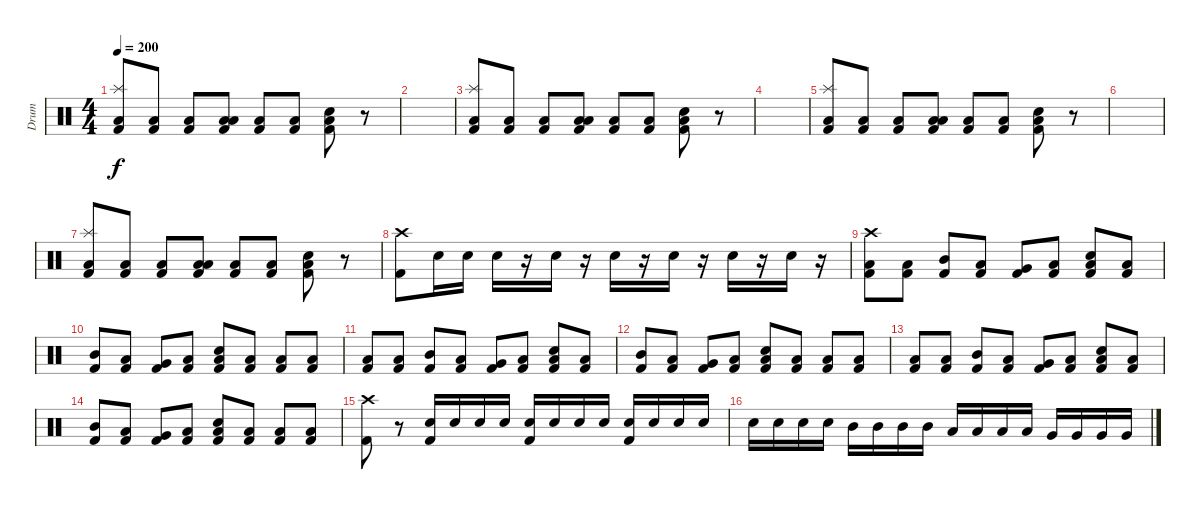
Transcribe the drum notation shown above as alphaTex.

\track ("Drum" "Drum") {instrument percussion}
\staff {score}
\articulation defaults
\ts (4 4)
\tempo 200
\clef neutral
\ks c
("Low Floor Tom (hit)" "Splash (hit)" "Kick (hit) 2").8{dy f} ("Low Floor Tom (hit)" "Kick (hit) 2").8 ("Low Floor Tom (hit)" "Kick (hit) 2").8 ("Low Tom (hit)" "Low Floor Tom (hit)" "Kick (hit) 2").8 ("Low Floor Tom (hit)" "Kick (hit) 2").8 ("Low Floor Tom (hit)" "Kick (hit) 2").8 ("Low Floor Tom (hit)" "Snare (hit) 2" "Kick (hit) 2").8 r.8 |
|
("Low Floor Tom (hit)" "Splash (hit)" "Kick (hit) 2").8 ("Low Floor Tom (hit)" "Kick (hit) 2").8 ("Low Floor Tom (hit)" "Kick (hit) 2").8 ("Low Tom (hit)" "Low Floor Tom (hit)" "Kick (hit) 2").8 ("Low Floor Tom (hit)" "Kick (hit) 2").8 ("Low Floor Tom (hit)" "Kick (hit) 2").8 ("Low Floor Tom (hit)" "Snare (hit) 2" "Kick (hit) 2").8 r.8 |
|
("Low Floor Tom (hit)" "Splash (hit)" "Kick (hit) 2").8 ("Low Floor Tom (hit)" "Kick (hit) 2").8 ("Low Floor Tom (hit)" "Kick (hit) 2").8 ("Low Tom (hit)" "Low Floor Tom (hit)" "Kick (hit) 2").8 ("Low Floor Tom (hit)" "Kick (hit) 2").8 ("Low Floor Tom (hit)" "Kick (hit) 2").8 ("Low Floor Tom (hit)" "Snare (hit) 2" "Kick (hit) 2").8 r.8 |
|
("Low Floor Tom (hit)" "Splash (hit)" "Kick (hit) 2").8 ("Low Floor Tom (hit)" "Kick (hit) 2").8 ("Low Floor Tom (hit)" "Kick (hit) 2").8 ("Low Tom (hit)" "Low Floor Tom (hit)" "Kick (hit) 2").8 ("Low Floor Tom (hit)" "Kick (hit) 2").8 ("Low Floor Tom (hit)" "Kick (hit) 2").8 ("Low Floor Tom (hit)" "Snare (hit) 2" "Kick (hit) 2").8 r.8 |
("Crash high (hit)" "Kick (hit) 2").8 "Snare (hit) 2".16 "Snare (hit) 2".16 "Snare (hit) 2".16 r.16 "Snare (hit) 2".16 r.16 "Snare (hit) 2".16 r.16 "Snare (hit) 2".16 r.16 "Snare (hit) 2".16 r.16 "Snare (hit) 2".16 r.16 |
("Low Floor Tom (hit)" "Crash high (hit)" "Kick (hit) 2").8 ("Low Floor Tom (hit)" "Kick (hit) 2").8 ("Mid Tom (hit)" "Kick (hit) 2").8 ("Low Tom (hit)" "Kick (hit) 2").8 ("Very Low Tom (hit)" "Kick (hit) 2").8 ("Low Floor Tom (hit)" "Kick (hit) 2").8 ("Low Floor Tom (hit)" "Snare (hit) 2" "Kick (hit) 2").8 ("Low Floor Tom (hit)" "Kick (hit) 2").8 |
("Mid Tom (hit)" "Kick (hit) 2").8 ("Low Tom (hit)" "Kick (hit) 2").8 ("Very Low Tom (hit)" "Kick (hit) 2").8 ("Low Floor Tom (hit)" "Kick (hit) 2").8 ("Low Floor Tom (hit)" "Snare (hit) 2" "Kick (hit) 2").8 ("Low Floor Tom (hit)" "Kick (hit) 2").8 ("Low Floor Tom (hit)" "Kick (hit) 2").8 ("Low Floor Tom (hit)" "Kick (hit) 2").8 |
("Low Floor Tom (hit)" "Kick (hit) 2").8 ("Low Floor Tom (hit)" "Kick (hit) 2").8 ("Mid Tom (hit)" "Kick (hit) 2").8 ("Low Tom (hit)" "Kick (hit) 2").8 ("Very Low Tom (hit)" "Kick (hit) 2").8 ("Low Floor Tom (hit)" "Kick (hit) 2").8 ("Low Floor Tom (hit)" "Snare (hit) 2" "Kick (hit) 2").8 ("Low Floor Tom (hit)" "Kick (hit) 2").8 |
("Mid Tom (hit)" "Kick (hit) 2").8 ("Low Tom (hit)" "Kick (hit) 2").8 ("Very Low Tom (hit)" "Kick (hit) 2").8 ("Low Floor Tom (hit)" "Kick (hit) 2").8 ("Low Floor Tom (hit)" "Snare (hit) 2" "Kick (hit) 2").8 ("Low Floor Tom (hit)" "Kick (hit) 2").8 ("Low Floor Tom (hit)" "Kick (hit) 2").8 ("Low Floor Tom (hit)" "Kick (hit) 2").8 |
("Low Floor Tom (hit)" "Kick (hit) 2").8 ("Low Floor Tom (hit)" "Kick (hit) 2").8 ("Mid Tom (hit)" "Kick (hit) 2").8 ("Low Tom (hit)" "Kick (hit) 2").8 ("Very Low Tom (hit)" "Kick (hit) 2").8 ("Low Floor Tom (hit)" "Kick (hit) 2").8 ("Low Floor Tom (hit)" "Snare (hit) 2" "Kick (hit) 2").8 ("Low Floor Tom (hit)" "Kick (hit) 2").8 |
("Mid Tom (hit)" "Kick (hit) 2").8 ("Low Tom (hit)" "Kick (hit) 2").8 ("Very Low Tom (hit)" "Kick (hit) 2").8 ("Low Floor Tom (hit)" "Kick (hit) 2").8 ("Low Floor Tom (hit)" "Snare (hit) 2" "Kick (hit) 2").8 ("Low Floor Tom (hit)" "Kick (hit) 2").8 ("Low Floor Tom (hit)" "Kick (hit) 2").8 ("Low Floor Tom (hit)" "Kick (hit) 2").8 |
("Crash high (hit)" "Kick (hit) 2").8 r.8 ("Snare (hit) 2" "Kick (hit) 2").16 "Snare (hit) 2".16 "Snare (hit) 2".16 "Snare (hit) 2".16 ("Snare (hit) 2" "Kick (hit) 2").16 "Snare (hit) 2".16 "Snare (hit) 2".16 "Snare (hit) 2".16 ("Snare (hit) 2" "Kick (hit) 2").16 "Snare (hit) 2".16 "Snare (hit) 2".16 "Snare (hit) 2".16 |
"Snare (hit) 2".16 "Snare (hit) 2".16 "Snare (hit) 2".16 "Snare (hit) 2".16 "Mid Tom (hit)".16 "Mid Tom (hit)".16 "Mid Tom (hit)".16 "Mid Tom (hit)".16 "Low Tom (hit)".16 "Low Tom (hit)".16 "Low Tom (hit)".16 "Low Tom (hit)".16 "Very Low Tom (hit)".16 "Very Low Tom (hit)".16 "Very Low Tom (hit)".16 "Very Low Tom (hit)".16
